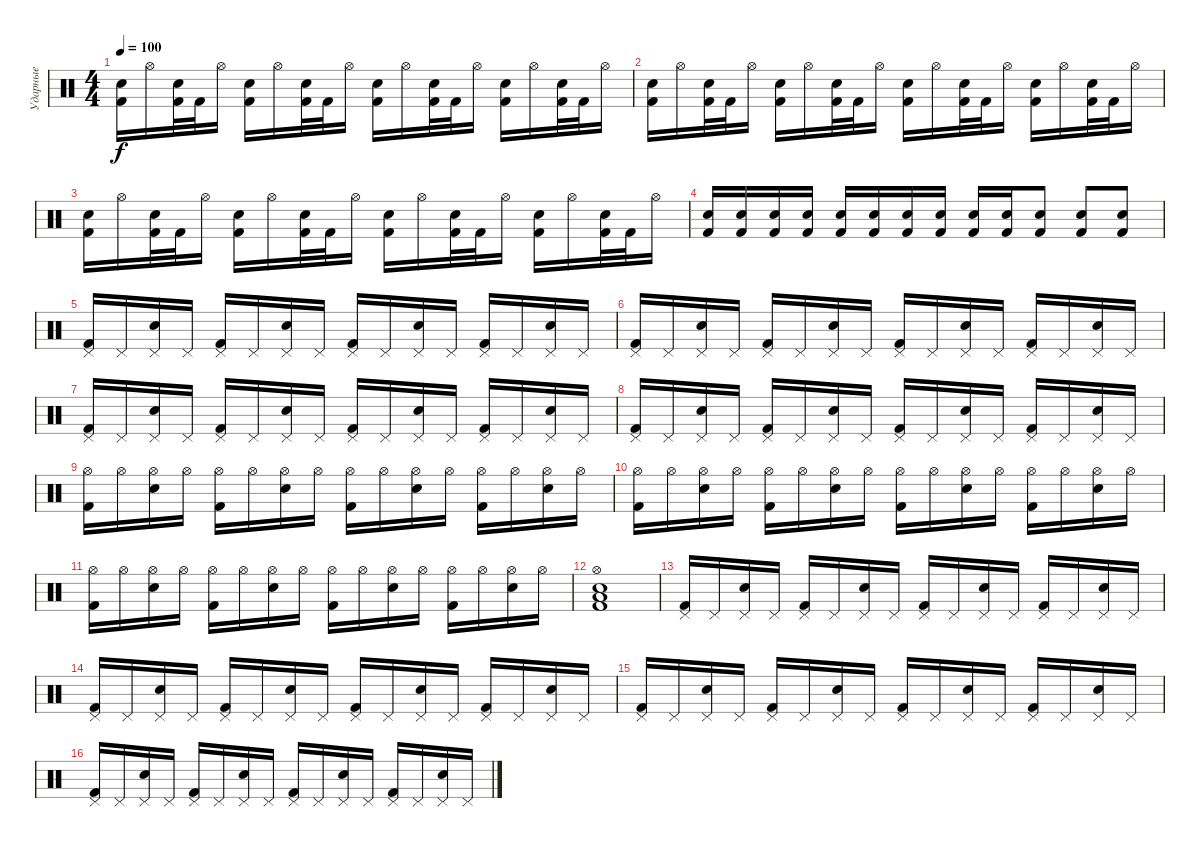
\track ("Ударные" "Ударные") {instrument percussion}
\staff {score}
\articulation defaults
\ts (4 4)
\tempo 100
\clef neutral
\ks c
("Snare (hit) 2" "Kick (hit) 2").16{dy f} "Hi-Hat (open)".16 ("Snare (hit) 2" "Kick (hit) 2").32 "Kick (hit) 2".32 "Hi-Hat (open)".16 ("Snare (hit) 2" "Kick (hit) 2").16 "Hi-Hat (open)".16 ("Snare (hit) 2" "Kick (hit) 2").32 "Kick (hit) 2".32 "Hi-Hat (open)".16 ("Snare (hit) 2" "Kick (hit) 2").16 "Hi-Hat (open)".16 ("Snare (hit) 2" "Kick (hit) 2").32 "Kick (hit) 2".32 "Hi-Hat (open)".16 ("Snare (hit) 2" "Kick (hit) 2").16 "Hi-Hat (open)".16 ("Snare (hit) 2" "Kick (hit) 2").32 "Kick (hit) 2".32 "Hi-Hat (open)".16 |
("Snare (hit) 2" "Kick (hit) 2").16 "Hi-Hat (open)".16 ("Snare (hit) 2" "Kick (hit) 2").32 "Kick (hit) 2".32 "Hi-Hat (open)".16 ("Snare (hit) 2" "Kick (hit) 2").16 "Hi-Hat (open)".16 ("Snare (hit) 2" "Kick (hit) 2").32 "Kick (hit) 2".32 "Hi-Hat (open)".16 ("Snare (hit) 2" "Kick (hit) 2").16 "Hi-Hat (open)".16 ("Snare (hit) 2" "Kick (hit) 2").32 "Kick (hit) 2".32 "Hi-Hat (open)".16 ("Snare (hit) 2" "Kick (hit) 2").16 "Hi-Hat (open)".16 ("Snare (hit) 2" "Kick (hit) 2").32 "Kick (hit) 2".32 "Hi-Hat (open)".16 |
("Snare (hit) 2" "Kick (hit) 2").16 "Hi-Hat (open)".16 ("Snare (hit) 2" "Kick (hit) 2").32 "Kick (hit) 2".32 "Hi-Hat (open)".16 ("Snare (hit) 2" "Kick (hit) 2").16 "Hi-Hat (open)".16 ("Snare (hit) 2" "Kick (hit) 2").32 "Kick (hit) 2".32 "Hi-Hat (open)".16 ("Snare (hit) 2" "Kick (hit) 2").16 "Hi-Hat (open)".16 ("Snare (hit) 2" "Kick (hit) 2").32 "Kick (hit) 2".32 "Hi-Hat (open)".16 ("Snare (hit) 2" "Kick (hit) 2").16 "Hi-Hat (open)".16 ("Snare (hit) 2" "Kick (hit) 2").32 "Kick (hit) 2".32 "Hi-Hat (open)".16 |
("Snare (hit) 2" "Kick (hit) 2").16 ("Snare (hit) 2" "Kick (hit) 2").16 ("Snare (hit) 2" "Kick (hit) 2").16 ("Snare (hit) 2" "Kick (hit) 2").16 ("Snare (hit) 2" "Kick (hit) 2").16 ("Snare (hit) 2" "Kick (hit) 2").16 ("Snare (hit) 2" "Kick (hit) 2").16 ("Snare (hit) 2" "Kick (hit) 2").16 ("Snare (hit) 2" "Kick (hit) 2").16 ("Snare (hit) 2" "Kick (hit) 2").16 ("Snare (hit) 2" "Kick (hit) 2").8 ("Snare (hit) 2" "Kick (hit) 2").8 ("Snare (hit) 2" "Kick (hit) 2").8 |
("Pedal Hi-Hat (hit)" "Kick (hit) 2").16 "Pedal Hi-Hat (hit)".16 ("Pedal Hi-Hat (hit)" "Snare (hit) 2").16 "Pedal Hi-Hat (hit)".16 ("Pedal Hi-Hat (hit)" "Kick (hit) 2").16 "Pedal Hi-Hat (hit)".16 ("Pedal Hi-Hat (hit)" "Snare (hit) 2").16 "Pedal Hi-Hat (hit)".16 ("Pedal Hi-Hat (hit)" "Kick (hit) 2").16 "Pedal Hi-Hat (hit)".16 ("Pedal Hi-Hat (hit)" "Snare (hit) 2").16 "Pedal Hi-Hat (hit)".16 ("Pedal Hi-Hat (hit)" "Kick (hit) 2").16 "Pedal Hi-Hat (hit)".16 ("Pedal Hi-Hat (hit)" "Snare (hit) 2").16 "Pedal Hi-Hat (hit)".16 |
("Pedal Hi-Hat (hit)" "Kick (hit) 2").16 "Pedal Hi-Hat (hit)".16 ("Pedal Hi-Hat (hit)" "Snare (hit) 2").16 "Pedal Hi-Hat (hit)".16 ("Pedal Hi-Hat (hit)" "Kick (hit) 2").16 "Pedal Hi-Hat (hit)".16 ("Pedal Hi-Hat (hit)" "Snare (hit) 2").16 "Pedal Hi-Hat (hit)".16 ("Pedal Hi-Hat (hit)" "Kick (hit) 2").16 "Pedal Hi-Hat (hit)".16 ("Pedal Hi-Hat (hit)" "Snare (hit) 2").16 "Pedal Hi-Hat (hit)".16 ("Pedal Hi-Hat (hit)" "Kick (hit) 2").16 "Pedal Hi-Hat (hit)".16 ("Pedal Hi-Hat (hit)" "Snare (hit) 2").16 "Pedal Hi-Hat (hit)".16 |
("Pedal Hi-Hat (hit)" "Kick (hit) 2").16 "Pedal Hi-Hat (hit)".16 ("Pedal Hi-Hat (hit)" "Snare (hit) 2").16 "Pedal Hi-Hat (hit)".16 ("Pedal Hi-Hat (hit)" "Kick (hit) 2").16 "Pedal Hi-Hat (hit)".16 ("Pedal Hi-Hat (hit)" "Snare (hit) 2").16 "Pedal Hi-Hat (hit)".16 ("Pedal Hi-Hat (hit)" "Kick (hit) 2").16 "Pedal Hi-Hat (hit)".16 ("Pedal Hi-Hat (hit)" "Snare (hit) 2").16 "Pedal Hi-Hat (hit)".16 ("Pedal Hi-Hat (hit)" "Kick (hit) 2").16 "Pedal Hi-Hat (hit)".16 ("Pedal Hi-Hat (hit)" "Snare (hit) 2").16 "Pedal Hi-Hat (hit)".16 |
("Pedal Hi-Hat (hit)" "Kick (hit) 2").16 "Pedal Hi-Hat (hit)".16 ("Pedal Hi-Hat (hit)" "Snare (hit) 2").16 "Pedal Hi-Hat (hit)".16 ("Pedal Hi-Hat (hit)" "Kick (hit) 2").16 "Pedal Hi-Hat (hit)".16 ("Pedal Hi-Hat (hit)" "Snare (hit) 2").16 "Pedal Hi-Hat (hit)".16 ("Pedal Hi-Hat (hit)" "Kick (hit) 2").16 "Pedal Hi-Hat (hit)".16 ("Pedal Hi-Hat (hit)" "Snare (hit) 2").16 "Pedal Hi-Hat (hit)".16 ("Pedal Hi-Hat (hit)" "Kick (hit) 2").16 "Pedal Hi-Hat (hit)".16 ("Pedal Hi-Hat (hit)" "Snare (hit) 2").16 "Pedal Hi-Hat (hit)".16 |
("Hi-Hat (open)" "Kick (hit) 2").16 "Hi-Hat (open)".16 ("Hi-Hat (open)" "Snare (hit) 2").16 "Hi-Hat (open)".16 ("Hi-Hat (open)" "Kick (hit) 2").16 "Hi-Hat (open)".16 ("Hi-Hat (open)" "Snare (hit) 2").16 "Hi-Hat (open)".16 ("Hi-Hat (open)" "Kick (hit) 2").16 "Hi-Hat (open)".16 ("Hi-Hat (open)" "Snare (hit) 2").16 "Hi-Hat (open)".16 ("Hi-Hat (open)" "Kick (hit) 2").16 "Hi-Hat (open)".16 ("Hi-Hat (open)" "Snare (hit) 2").16 "Hi-Hat (open)".16 |
("Hi-Hat (open)" "Kick (hit) 2").16 "Hi-Hat (open)".16 ("Hi-Hat (open)" "Snare (hit) 2").16 "Hi-Hat (open)".16 ("Hi-Hat (open)" "Kick (hit) 2").16 "Hi-Hat (open)".16 ("Hi-Hat (open)" "Snare (hit) 2").16 "Hi-Hat (open)".16 ("Hi-Hat (open)" "Kick (hit) 2").16 "Hi-Hat (open)".16 ("Hi-Hat (open)" "Snare (hit) 2").16 "Hi-Hat (open)".16 ("Hi-Hat (open)" "Kick (hit) 2").16 "Hi-Hat (open)".16 ("Hi-Hat (open)" "Snare (hit) 2").16 "Hi-Hat (open)".16 |
("Hi-Hat (open)" "Kick (hit) 2").16 "Hi-Hat (open)".16 ("Hi-Hat (open)" "Snare (hit) 2").16 "Hi-Hat (open)".16 ("Hi-Hat (open)" "Kick (hit) 2").16 "Hi-Hat (open)".16 ("Hi-Hat (open)" "Snare (hit) 2").16 "Hi-Hat (open)".16 ("Hi-Hat (open)" "Kick (hit) 2").16 "Hi-Hat (open)".16 ("Hi-Hat (open)" "Snare (hit) 2").16 "Hi-Hat (open)".16 ("Hi-Hat (open)" "Kick (hit) 2").16 "Hi-Hat (open)".16 ("Hi-Hat (open)" "Snare (hit) 2").16 "Hi-Hat (open)".16 |
("Hi-Hat (open)" "Snare (hit) 2" "Low Floor Tom (hit)" "Kick (hit) 2").1 |
("Pedal Hi-Hat (hit)" "Kick (hit) 2").16 "Pedal Hi-Hat (hit)".16 ("Pedal Hi-Hat (hit)" "Snare (hit) 2").16 "Pedal Hi-Hat (hit)".16 ("Pedal Hi-Hat (hit)" "Kick (hit) 2").16 "Pedal Hi-Hat (hit)".16 ("Pedal Hi-Hat (hit)" "Snare (hit) 2").16 "Pedal Hi-Hat (hit)".16 ("Pedal Hi-Hat (hit)" "Kick (hit) 2").16 "Pedal Hi-Hat (hit)".16 ("Pedal Hi-Hat (hit)" "Snare (hit) 2").16 "Pedal Hi-Hat (hit)".16 ("Pedal Hi-Hat (hit)" "Kick (hit) 2").16 "Pedal Hi-Hat (hit)".16 ("Pedal Hi-Hat (hit)" "Snare (hit) 2").16 "Pedal Hi-Hat (hit)".16 |
("Pedal Hi-Hat (hit)" "Kick (hit) 2").16 "Pedal Hi-Hat (hit)".16 ("Pedal Hi-Hat (hit)" "Snare (hit) 2").16 "Pedal Hi-Hat (hit)".16 ("Pedal Hi-Hat (hit)" "Kick (hit) 2").16 "Pedal Hi-Hat (hit)".16 ("Pedal Hi-Hat (hit)" "Snare (hit) 2").16 "Pedal Hi-Hat (hit)".16 ("Pedal Hi-Hat (hit)" "Kick (hit) 2").16 "Pedal Hi-Hat (hit)".16 ("Pedal Hi-Hat (hit)" "Snare (hit) 2").16 "Pedal Hi-Hat (hit)".16 ("Pedal Hi-Hat (hit)" "Kick (hit) 2").16 "Pedal Hi-Hat (hit)".16 ("Pedal Hi-Hat (hit)" "Snare (hit) 2").16 "Pedal Hi-Hat (hit)".16 |
("Pedal Hi-Hat (hit)" "Kick (hit) 2").16 "Pedal Hi-Hat (hit)".16 ("Pedal Hi-Hat (hit)" "Snare (hit) 2").16 "Pedal Hi-Hat (hit)".16 ("Pedal Hi-Hat (hit)" "Kick (hit) 2").16 "Pedal Hi-Hat (hit)".16 ("Pedal Hi-Hat (hit)" "Snare (hit) 2").16 "Pedal Hi-Hat (hit)".16 ("Pedal Hi-Hat (hit)" "Kick (hit) 2").16 "Pedal Hi-Hat (hit)".16 ("Pedal Hi-Hat (hit)" "Snare (hit) 2").16 "Pedal Hi-Hat (hit)".16 ("Pedal Hi-Hat (hit)" "Kick (hit) 2").16 "Pedal Hi-Hat (hit)".16 ("Pedal Hi-Hat (hit)" "Snare (hit) 2").16 "Pedal Hi-Hat (hit)".16 |
("Pedal Hi-Hat (hit)" "Kick (hit) 2").16 "Pedal Hi-Hat (hit)".16 ("Pedal Hi-Hat (hit)" "Snare (hit) 2").16 "Pedal Hi-Hat (hit)".16 ("Pedal Hi-Hat (hit)" "Kick (hit) 2").16 "Pedal Hi-Hat (hit)".16 ("Pedal Hi-Hat (hit)" "Snare (hit) 2").16 "Pedal Hi-Hat (hit)".16 ("Pedal Hi-Hat (hit)" "Kick (hit) 2").16 "Pedal Hi-Hat (hit)".16 ("Pedal Hi-Hat (hit)" "Snare (hit) 2").16 "Pedal Hi-Hat (hit)".16 ("Pedal Hi-Hat (hit)" "Kick (hit) 2").16 "Pedal Hi-Hat (hit)".16 ("Pedal Hi-Hat (hit)" "Snare (hit) 2").16 "Pedal Hi-Hat (hit)".16
